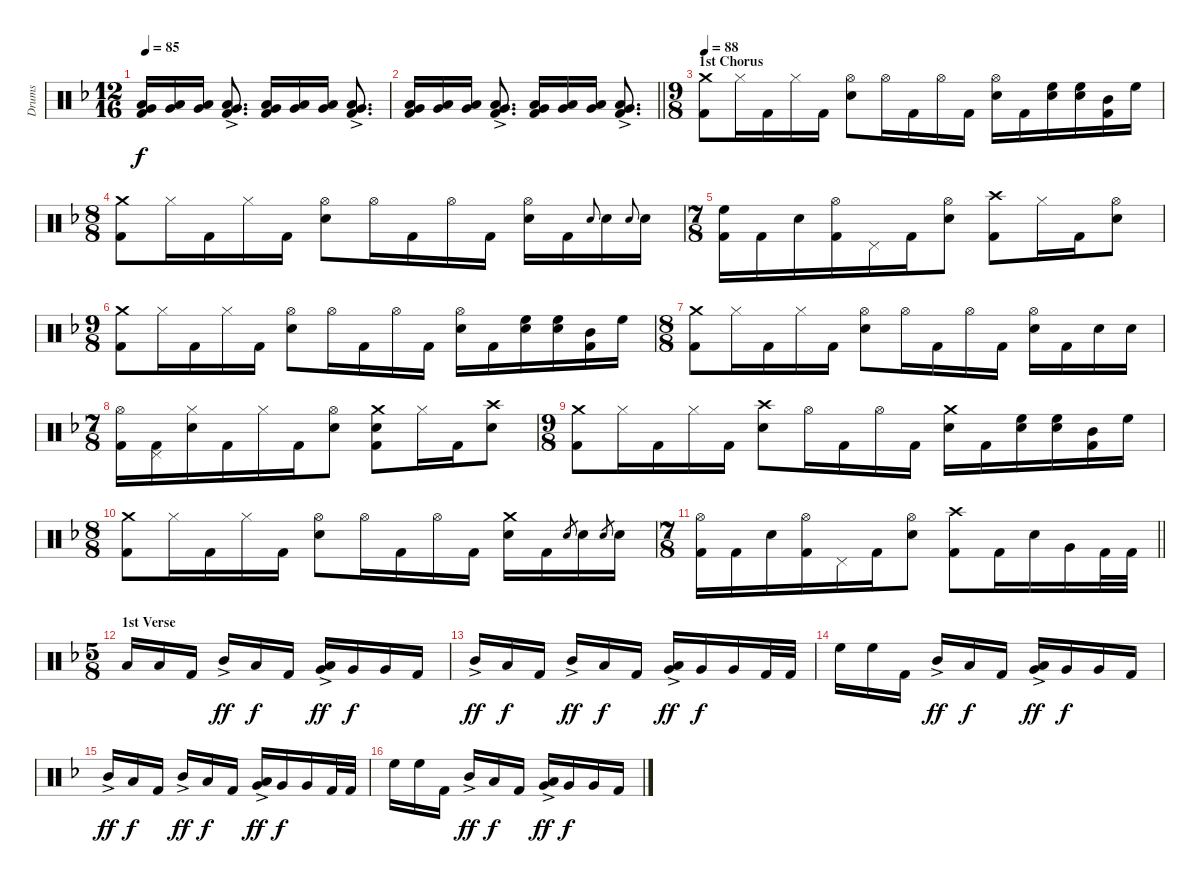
\track ("Drums" "Drums") {instrument percussion}
\staff {score}
\articulation defaults
\ts (12 16)
\tempo 85
\clef neutral
\ks dminor
("Low Tom (hit)" "Very Low Tom (hit)" "Kick (hit) 2").16{dy f volume 8} ("Low Tom (hit)" "Very Low Tom (hit)").16 ("Low Tom (hit)" "Very Low Tom (hit)").16 ("Low Tom (hit)"{ac} "Very Low Tom (hit)"{ac} "Kick (hit) 2").8{d} ("Low Tom (hit)" "Very Low Tom (hit)" "Kick (hit) 2").16 ("Low Tom (hit)" "Very Low Tom (hit)").16 ("Low Tom (hit)" "Very Low Tom (hit)").16 ("Low Tom (hit)"{ac} "Very Low Tom (hit)"{ac} "Kick (hit) 2").8{d} |
\barLineRight lightlight
("Low Tom (hit)" "Very Low Tom (hit)" "Kick (hit) 2").16 ("Low Tom (hit)" "Very Low Tom (hit)").16 ("Low Tom (hit)" "Very Low Tom (hit)").16 ("Low Tom (hit)"{ac} "Very Low Tom (hit)"{ac} "Kick (hit) 2").8{d} ("Low Tom (hit)" "Very Low Tom (hit)" "Kick (hit) 2").16 ("Low Tom (hit)" "Very Low Tom (hit)").16 ("Low Tom (hit)" "Very Low Tom (hit)").16 ("Low Tom (hit)"{ac} "Very Low Tom (hit)"{ac} "Kick (hit) 2").8{d} |
\ts (9 8)
\section ("" "1st Chorus")
\tempo 88
("Crash medium (hit)" "Kick (hit) 2").8{volume 9} "Hi-Hat (closed)".16 "Kick (hit) 2".16 "Hi-Hat (closed)".16 "Kick (hit) 2".16 ("Hi-Hat (open)" "Snare (hit) 2").8 "Hi-Hat (open)".16 "Kick (hit) 2".16 "Hi-Hat (open)".16 "Kick (hit) 2".16 ("Hi-Hat (open)" "Snare (hit) 2").16 "Kick (hit) 2".16 ("High Floor Tom (hit)" "Snare (hit) 2").16 ("High Floor Tom (hit)" "Snare (hit) 2").16 ("Mid Tom (hit)" "Kick (hit) 2").16 "High Floor Tom (hit)".16 |
\ts (8 8)
("Crash medium (hit)" "Kick (hit) 2").8{beam merge} "Hi-Hat (closed)".16 "Kick (hit) 2".16{beam merge} "Hi-Hat (closed)".16 "Kick (hit) 2".16 ("Hi-Hat (open)" "Snare (hit) 2").8{beam merge} "Hi-Hat (open)".16 "Kick (hit) 2".16{beam merge} "Hi-Hat (open)".16 "Kick (hit) 2".16 ("Hi-Hat (open)" "Snare (hit) 2").16 "Kick (hit) 2".16 "Snare (hit) 2".8{gr onbeat beam merge} "Snare (hit) 2".16 "Snare (hit) 2".8{gr onbeat beam merge} "Snare (hit) 2".16 |
\ts (7 8)
("High Floor Tom (hit)" "Kick (hit) 2").16 "Kick (hit) 2".16{beam merge} "Snare (hit) 2".16 ("Hi-Hat (open)" "Kick (hit) 2").16{beam merge} "Pedal Hi-Hat (hit)".16 "Kick (hit) 2".16{beam merge} ("Hi-Hat (open)" "Snare (hit) 2").8{beam split} ("Crash high (hit)" "Kick (hit) 2").8{beam merge} "Hi-Hat (closed)".16 "Kick (hit) 2".16{beam merge} ("Hi-Hat (open)" "Snare (hit) 2").8 |
\ts (9 8)
("Crash medium (hit)" "Kick (hit) 2").8 "Hi-Hat (closed)".16 "Kick (hit) 2".16 "Hi-Hat (closed)".16 "Kick (hit) 2".16 ("Hi-Hat (open)" "Snare (hit) 2").8 "Hi-Hat (open)".16 "Kick (hit) 2".16 "Hi-Hat (open)".16 "Kick (hit) 2".16 ("Hi-Hat (open)" "Snare (hit) 2").16 "Kick (hit) 2".16 ("High Floor Tom (hit)" "Snare (hit) 2").16 ("High Floor Tom (hit)" "Snare (hit) 2").16 ("Mid Tom (hit)" "Kick (hit) 2").16 "High Floor Tom (hit)".16 |
\ts (8 8)
("Crash medium (hit)" "Kick (hit) 2").8{beam merge} "Hi-Hat (closed)".16 "Kick (hit) 2".16{beam merge} "Hi-Hat (closed)".16 "Kick (hit) 2".16 ("Hi-Hat (open)" "Snare (hit) 2").8{beam merge} "Hi-Hat (open)".16 "Kick (hit) 2".16{beam merge} "Hi-Hat (open)".16 "Kick (hit) 2".16 ("Hi-Hat (open)" "Snare (hit) 2").16 "Kick (hit) 2".16{beam merge} "Snare (hit) 2".16{beam merge} "Snare (hit) 2".16 |
\ts (7 8)
("Hi-Hat (open)" "Kick (hit) 2").16 ("Pedal Hi-Hat (hit)" "Kick (hit) 2").16{beam merge} ("Hi-Hat (closed)" "Snare (hit) 2").16 "Kick (hit) 2".16{beam merge} "Hi-Hat (closed)".16 "Kick (hit) 2".16{beam merge} ("Hi-Hat (open)" "Snare (hit) 2").8{beam split} ("Crash medium (hit)" "Snare (hit) 2" "Kick (hit) 2").8{beam merge} "Hi-Hat (closed)".16 "Kick (hit) 2".16{beam merge} ("Crash high (hit)" "Snare (hit) 2").8 |
\ts (9 8)
("Crash medium (hit)" "Kick (hit) 2").8 "Hi-Hat (closed)".16 "Kick (hit) 2".16 "Hi-Hat (closed)".16 "Kick (hit) 2".16 ("Crash high (hit)" "Snare (hit) 2").8 "Hi-Hat (open)".16 "Kick (hit) 2".16 "Hi-Hat (open)".16 "Kick (hit) 2".16 ("Crash medium (hit)" "Snare (hit) 2").16 "Kick (hit) 2".16 ("High Floor Tom (hit)" "Snare (hit) 2").16 ("High Floor Tom (hit)" "Snare (hit) 2").16 ("Mid Tom (hit)" "Kick (hit) 2").16 "High Floor Tom (hit)".16 |
\ts (8 8)
("Crash medium (hit)" "Kick (hit) 2").8{beam merge} "Hi-Hat (closed)".16{beam merge} "Kick (hit) 2".16{beam merge} "Hi-Hat (closed)".16{beam merge} "Kick (hit) 2".16{beam split} ("Hi-Hat (open)" "Electric Snare (hit)").8{beam merge} "Hi-Hat (open)".16 "Kick (hit) 2".16{beam merge} "Hi-Hat (open)".16 "Kick (hit) 2".16 ("Crash medium (hit)" "Electric Snare (hit)").16 "Kick (hit) 2".16 "Electric Snare (hit)".8{gr beam merge} "Electric Snare (hit)".16 "Electric Snare (hit)".8{gr} "Electric Snare (hit)".16 |
\ts (7 8)
\barLineRight lightlight
("Hi-Hat (open)" "Kick (hit) 2").16 "Kick (hit) 2".16{beam merge} "Electric Snare (hit)".16 ("Hi-Hat (open)" "Kick (hit) 2").16{beam merge} "Pedal Hi-Hat (hit)".16 "Kick (hit) 2".16{beam merge} ("Hi-Hat (open)" "Electric Snare (hit)").8{beam split} ("Crash high (hit)" "Kick (hit) 2").8{beam merge} "Kick (hit) 2".16 "Electric Snare (hit)".16{beam merge} "Very Low Tom (hit)".16 "Kick (hit) 2".32 "Kick (hit) 2".32 |
\ts (5 8)
\section ("" "1st Verse")
"Low Tom (hit)".16 "Low Tom (hit)".16{beam merge} "Kick (hit) 2".16{beam split} "Mid Tom (hit)"{ac}.16{dy ff beam merge} "Low Tom (hit)".16{dy f} "Kick (hit) 2".16{beam split} ("Low Tom (hit)"{ac} "Very Low Tom (hit)").16{dy ff} "Very Low Tom (hit)".16{dy f beam merge} "Very Low Tom (hit)".16 "Kick (hit) 2".16 |
"Mid Tom (hit)"{ac}.16{dy ff} "Low Tom (hit)".16{dy f beam merge} "Kick (hit) 2".16{beam split} "Mid Tom (hit)"{ac}.16{dy ff beam merge} "Low Tom (hit)".16{dy f} "Kick (hit) 2".16{beam split} ("Low Tom (hit)"{ac} "Very Low Tom (hit)").16{dy ff} "Very Low Tom (hit)".16{dy f beam merge} "Very Low Tom (hit)".16 "Kick (hit) 2".32 "Kick (hit) 2".32 |
"High Floor Tom (hit)".16 "High Floor Tom (hit)".16{beam merge} "Kick (hit) 2".16{beam split} "Mid Tom (hit)"{ac}.16{dy ff beam merge} "Low Tom (hit)".16{dy f} "Kick (hit) 2".16{beam split} ("Low Tom (hit)"{ac} "Very Low Tom (hit)").16{dy ff} "Very Low Tom (hit)".16{dy f beam merge} "Very Low Tom (hit)".16 "Kick (hit) 2".16 |
"Mid Tom (hit)"{ac}.16{dy ff} "Low Tom (hit)".16{dy f beam merge} "Kick (hit) 2".16{beam split} "Mid Tom (hit)"{ac}.16{dy ff beam merge} "Low Tom (hit)".16{dy f} "Kick (hit) 2".16{beam split} ("Low Tom (hit)"{ac} "Very Low Tom (hit)").16{dy ff} "Very Low Tom (hit)".16{dy f beam merge} "Very Low Tom (hit)".16 "Kick (hit) 2".32 "Kick (hit) 2".32 |
"High Floor Tom (hit)".16 "High Floor Tom (hit)".16{beam merge} "Kick (hit) 2".16{beam split} "Mid Tom (hit)"{ac}.16{dy ff beam merge} "Low Tom (hit)".16{dy f} "Kick (hit) 2".16{beam split} ("Low Tom (hit)"{ac} "Very Low Tom (hit)").16{dy ff} "Very Low Tom (hit)".16{dy f beam merge} "Very Low Tom (hit)".16 "Kick (hit) 2".16
